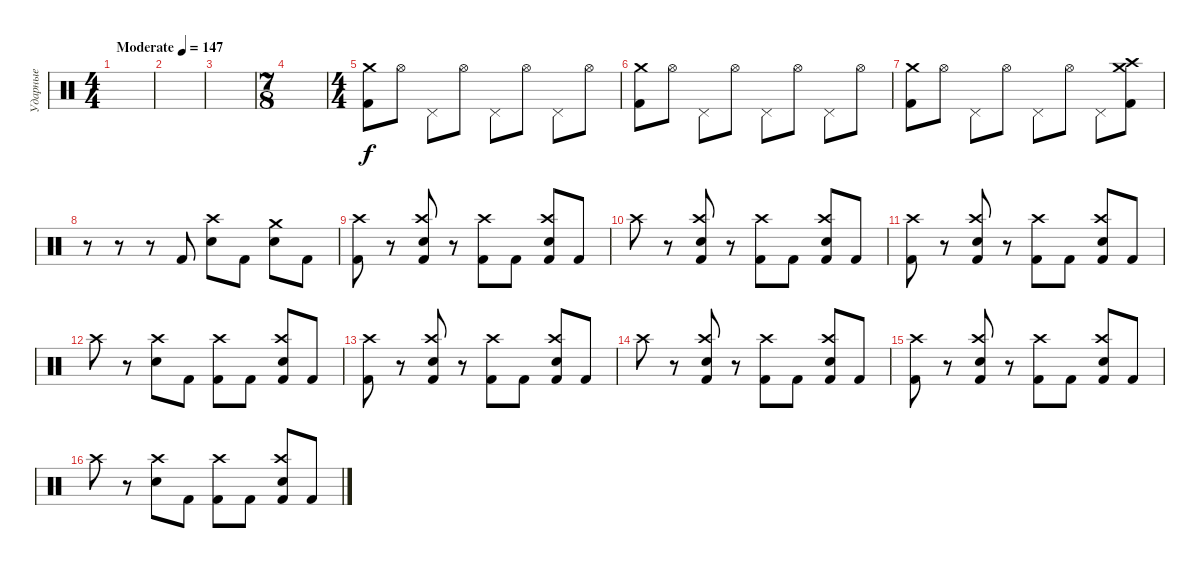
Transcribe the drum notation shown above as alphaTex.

\track ("Ударные" "Ударные") {instrument percussion}
\staff {score}
\articulation defaults
\ts (4 4)
\tempo (147 "Moderate")
\clef neutral
\ks c
|
|
|
\ts (7 8)
|
\ts (4 4)
("Crash medium (hit)" "Kick (hit) 2").8 "Hi-Hat (open)".8 "Pedal Hi-Hat (hit)".8 "Hi-Hat (open)".8 "Pedal Hi-Hat (hit)".8 "Hi-Hat (open)".8 "Pedal Hi-Hat (hit)".8 "Hi-Hat (open)".8 |
("Crash medium (hit)" "Kick (hit) 2").8 "Hi-Hat (open)".8 "Pedal Hi-Hat (hit)".8 "Hi-Hat (open)".8 "Pedal Hi-Hat (hit)".8 "Hi-Hat (open)".8 "Pedal Hi-Hat (hit)".8 "Hi-Hat (open)".8 |
("Crash medium (hit)" "Kick (hit) 2").8 "Hi-Hat (open)".8 "Pedal Hi-Hat (hit)".8 "Hi-Hat (open)".8 "Pedal Hi-Hat (hit)".8 "Hi-Hat (open)".8 "Pedal Hi-Hat (hit)".8 ("Crash high (hit)" "Crash medium (hit)" "Kick (hit) 2").8 |
r.8 r.8 r.8 "Kick (hit) 2".8 ("Crash high (hit)" "Electric Snare (hit)").8 "Kick (hit) 2".8 ("Crash medium (hit)" "Electric Snare (hit)").8 "Kick (hit) 2".8 |
("Crash high (hit)" "Kick (hit) 2").8 r.8 ("Crash high (hit)" "Electric Snare (hit)" "Kick (hit) 2").8 r.8 ("Crash high (hit)" "Kick (hit) 2").8 "Kick (hit) 2".8 ("Crash high (hit)" "Electric Snare (hit)" "Kick (hit) 2").8 "Kick (hit) 2".8 |
"Crash high (hit)".8 r.8 ("Crash high (hit)" "Electric Snare (hit)" "Kick (hit) 2").8 r.8 ("Crash high (hit)" "Kick (hit) 2").8 "Kick (hit) 2".8 ("Crash high (hit)" "Electric Snare (hit)" "Kick (hit) 2").8 "Kick (hit) 2".8 |
("Crash high (hit)" "Kick (hit) 2").8 r.8 ("Crash high (hit)" "Electric Snare (hit)" "Kick (hit) 2").8 r.8 ("Crash high (hit)" "Kick (hit) 2").8 "Kick (hit) 2".8 ("Crash high (hit)" "Electric Snare (hit)" "Kick (hit) 2").8 "Kick (hit) 2".8 |
"Crash high (hit)".8 r.8 ("Crash high (hit)" "Electric Snare (hit)").8 "Kick (hit) 2".8 ("Crash high (hit)" "Kick (hit) 2").8 "Kick (hit) 2".8 ("Crash high (hit)" "Electric Snare (hit)" "Kick (hit) 2").8 "Kick (hit) 2".8 |
("Crash high (hit)" "Kick (hit) 2").8 r.8 ("Crash high (hit)" "Electric Snare (hit)" "Kick (hit) 2").8 r.8 ("Crash high (hit)" "Kick (hit) 2").8 "Kick (hit) 2".8 ("Crash high (hit)" "Electric Snare (hit)" "Kick (hit) 2").8 "Kick (hit) 2".8 |
"Crash high (hit)".8 r.8 ("Crash high (hit)" "Electric Snare (hit)" "Kick (hit) 2").8 r.8 ("Crash high (hit)" "Kick (hit) 2").8 "Kick (hit) 2".8 ("Crash high (hit)" "Electric Snare (hit)" "Kick (hit) 2").8 "Kick (hit) 2".8 |
("Crash high (hit)" "Kick (hit) 2").8 r.8 ("Crash high (hit)" "Electric Snare (hit)" "Kick (hit) 2").8 r.8 ("Crash high (hit)" "Kick (hit) 2").8 "Kick (hit) 2".8 ("Crash high (hit)" "Electric Snare (hit)" "Kick (hit) 2").8 "Kick (hit) 2".8 |
"Crash high (hit)".8 r.8 ("Crash high (hit)" "Electric Snare (hit)").8 "Kick (hit) 2".8 ("Crash high (hit)" "Kick (hit) 2").8 "Kick (hit) 2".8 ("Crash high (hit)" "Electric Snare (hit)" "Kick (hit) 2").8 "Kick (hit) 2".8
